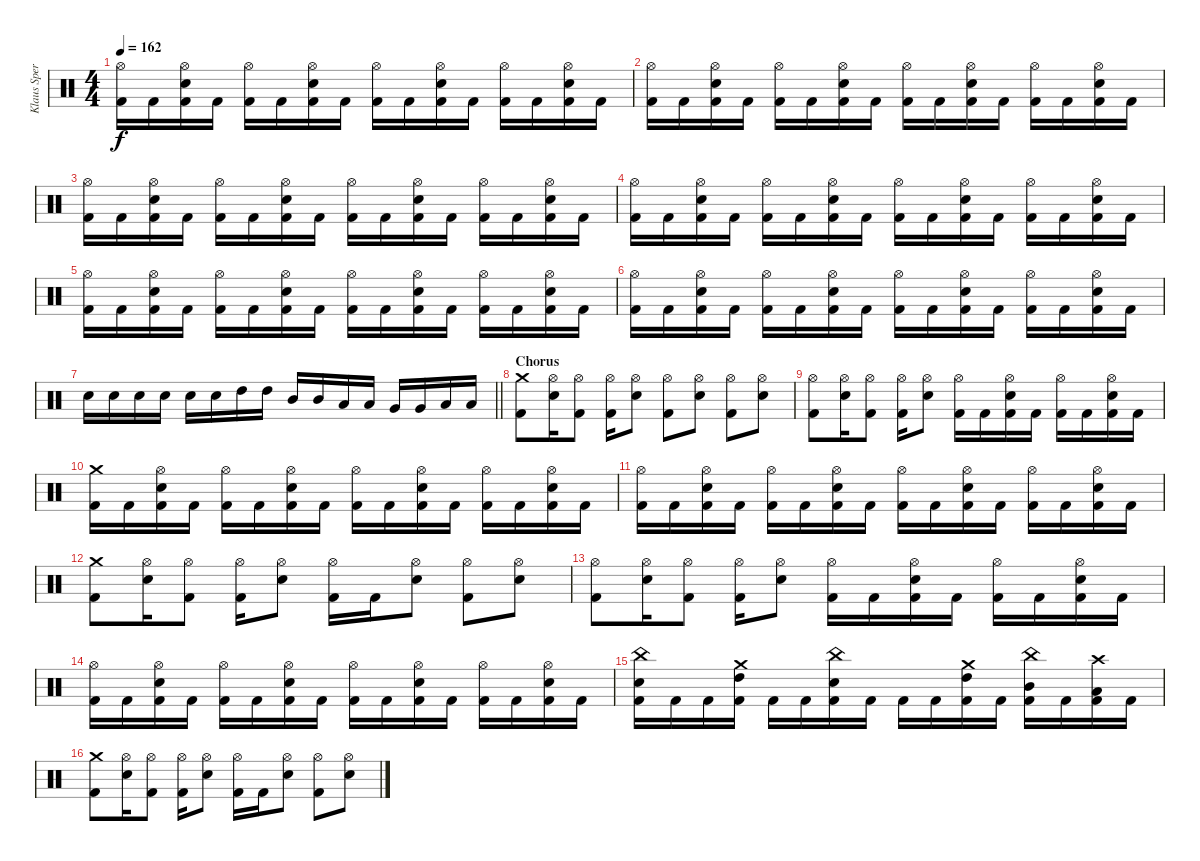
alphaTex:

\track ("Klaus Sperling" "Klaus Sper") {instrument percussion}
\staff {score}
\articulation defaults
\ts (4 4)
\tempo 162
\clef neutral
\ks c
("Hi-Hat (open)" "Kick (hit) 2").16{dy f} "Kick (hit) 2".16 ("Hi-Hat (open)" "Electric Snare (hit)" "Kick (hit) 2").16 "Kick (hit) 2".16 ("Hi-Hat (open)" "Kick (hit) 2").16 "Kick (hit) 2".16 ("Hi-Hat (open)" "Electric Snare (hit)" "Kick (hit) 2").16 "Kick (hit) 2".16 ("Hi-Hat (open)" "Kick (hit) 2").16 "Kick (hit) 2".16 ("Hi-Hat (open)" "Electric Snare (hit)" "Kick (hit) 2").16 "Kick (hit) 2".16 ("Hi-Hat (open)" "Kick (hit) 2").16 "Kick (hit) 2".16 ("Hi-Hat (open)" "Electric Snare (hit)" "Kick (hit) 2").16 "Kick (hit) 2".16 |
("Hi-Hat (open)" "Kick (hit) 2").16 "Kick (hit) 2".16 ("Hi-Hat (open)" "Electric Snare (hit)" "Kick (hit) 2").16 "Kick (hit) 2".16 ("Hi-Hat (open)" "Kick (hit) 2").16 "Kick (hit) 2".16 ("Hi-Hat (open)" "Electric Snare (hit)" "Kick (hit) 2").16 "Kick (hit) 2".16 ("Hi-Hat (open)" "Kick (hit) 2").16 "Kick (hit) 2".16 ("Hi-Hat (open)" "Electric Snare (hit)" "Kick (hit) 2").16 "Kick (hit) 2".16 ("Hi-Hat (open)" "Kick (hit) 2").16 "Kick (hit) 2".16 ("Hi-Hat (open)" "Electric Snare (hit)" "Kick (hit) 2").16 "Kick (hit) 2".16 |
("Hi-Hat (open)" "Kick (hit) 2").16 "Kick (hit) 2".16 ("Hi-Hat (open)" "Electric Snare (hit)" "Kick (hit) 2").16 "Kick (hit) 2".16 ("Hi-Hat (open)" "Kick (hit) 2").16 "Kick (hit) 2".16 ("Hi-Hat (open)" "Electric Snare (hit)" "Kick (hit) 2").16 "Kick (hit) 2".16 ("Hi-Hat (open)" "Kick (hit) 2").16 "Kick (hit) 2".16 ("Hi-Hat (open)" "Electric Snare (hit)" "Kick (hit) 2").16 "Kick (hit) 2".16 ("Hi-Hat (open)" "Kick (hit) 2").16 "Kick (hit) 2".16 ("Hi-Hat (open)" "Electric Snare (hit)" "Kick (hit) 2").16 "Kick (hit) 2".16 |
("Hi-Hat (open)" "Kick (hit) 2").16 "Kick (hit) 2".16 ("Hi-Hat (open)" "Electric Snare (hit)" "Kick (hit) 2").16 "Kick (hit) 2".16 ("Hi-Hat (open)" "Kick (hit) 2").16 "Kick (hit) 2".16 ("Hi-Hat (open)" "Electric Snare (hit)" "Kick (hit) 2").16 "Kick (hit) 2".16 ("Hi-Hat (open)" "Kick (hit) 2").16 "Kick (hit) 2".16 ("Hi-Hat (open)" "Electric Snare (hit)" "Kick (hit) 2").16 "Kick (hit) 2".16 ("Hi-Hat (open)" "Kick (hit) 2").16 "Kick (hit) 2".16 ("Hi-Hat (open)" "Electric Snare (hit)" "Kick (hit) 2").16 "Kick (hit) 2".16 |
("Hi-Hat (open)" "Kick (hit) 2").16 "Kick (hit) 2".16 ("Hi-Hat (open)" "Electric Snare (hit)" "Kick (hit) 2").16 "Kick (hit) 2".16 ("Hi-Hat (open)" "Kick (hit) 2").16 "Kick (hit) 2".16 ("Hi-Hat (open)" "Electric Snare (hit)" "Kick (hit) 2").16 "Kick (hit) 2".16 ("Hi-Hat (open)" "Kick (hit) 2").16 "Kick (hit) 2".16 ("Hi-Hat (open)" "Electric Snare (hit)" "Kick (hit) 2").16 "Kick (hit) 2".16 ("Hi-Hat (open)" "Kick (hit) 2").16 "Kick (hit) 2".16 ("Hi-Hat (open)" "Electric Snare (hit)" "Kick (hit) 2").16 "Kick (hit) 2".16 |
("Hi-Hat (open)" "Kick (hit) 2").16 "Kick (hit) 2".16 ("Hi-Hat (open)" "Electric Snare (hit)" "Kick (hit) 2").16 "Kick (hit) 2".16 ("Hi-Hat (open)" "Kick (hit) 2").16 "Kick (hit) 2".16 ("Hi-Hat (open)" "Electric Snare (hit)" "Kick (hit) 2").16 "Kick (hit) 2".16 ("Hi-Hat (open)" "Kick (hit) 2").16 "Kick (hit) 2".16 ("Hi-Hat (open)" "Electric Snare (hit)" "Kick (hit) 2").16 "Kick (hit) 2".16 ("Hi-Hat (open)" "Kick (hit) 2").16 "Kick (hit) 2".16 ("Hi-Hat (open)" "Electric Snare (hit)" "Kick (hit) 2").16 "Kick (hit) 2".16 |
\barLineRight lightlight "Electric Snare (hit)".16 "Electric Snare (hit)".16 "Electric Snare (hit)".16 "Electric Snare (hit)".16 "Electric Snare (hit)".16 "Electric Snare (hit)".16 "High Tom (hit)".16 "High Tom (hit)".16 "Mid Tom (hit)".16 "Mid Tom (hit)".16 "Low Tom (hit)".16 "Low Tom (hit)".16 "Very Low Tom (hit)".16 "Very Low Tom (hit)".16 "Low Floor Tom (hit)".16 "Low Floor Tom (hit)".16
|
\section ("" "Chorus")
("Crash medium (hit)" "Kick (hit) 2").8 ("Hi-Hat (open)" "Electric Snare (hit)").16 ("Hi-Hat (open)" "Kick (hit) 2").8 ("Hi-Hat (open)" "Kick (hit) 2").16 ("Hi-Hat (open)" "Electric Snare (hit)").8 ("Hi-Hat (open)" "Kick (hit) 2").8 ("Hi-Hat (open)" "Electric Snare (hit)").8 ("Hi-Hat (open)" "Kick (hit) 2").8 ("Hi-Hat (open)" "Electric Snare (hit)").8 |
("Hi-Hat (open)" "Kick (hit) 2").8 ("Hi-Hat (open)" "Electric Snare (hit)").16 ("Hi-Hat (open)" "Kick (hit) 2").8 ("Hi-Hat (open)" "Kick (hit) 2").16 ("Hi-Hat (open)" "Electric Snare (hit)").8 ("Hi-Hat (open)" "Kick (hit) 2").16 "Kick (hit) 2".16 ("Hi-Hat (open)" "Electric Snare (hit)" "Kick (hit) 2").16 "Kick (hit) 2".16 ("Hi-Hat (open)" "Kick (hit) 2").16 "Kick (hit) 2".16 ("Hi-Hat (open)" "Electric Snare (hit)" "Kick (hit) 2").16 "Kick (hit) 2".16 |
("Crash medium (hit)" "Kick (hit) 2").16 "Kick (hit) 2".16 ("Hi-Hat (open)" "Electric Snare (hit)" "Kick (hit) 2").16 "Kick (hit) 2".16 ("Hi-Hat (open)" "Kick (hit) 2").16 "Kick (hit) 2".16 ("Hi-Hat (open)" "Electric Snare (hit)" "Kick (hit) 2").16 "Kick (hit) 2".16 ("Hi-Hat (open)" "Kick (hit) 2").16 "Kick (hit) 2".16 ("Hi-Hat (open)" "Electric Snare (hit)" "Kick (hit) 2").16 "Kick (hit) 2".16 ("Hi-Hat (open)" "Kick (hit) 2").16 "Kick (hit) 2".16 ("Hi-Hat (open)" "Electric Snare (hit)" "Kick (hit) 2").16 "Kick (hit) 2".16 |
("Hi-Hat (open)" "Kick (hit) 2").16 "Kick (hit) 2".16 ("Hi-Hat (open)" "Electric Snare (hit)" "Kick (hit) 2").16 "Kick (hit) 2".16 ("Hi-Hat (open)" "Kick (hit) 2").16 "Kick (hit) 2".16 ("Hi-Hat (open)" "Electric Snare (hit)" "Kick (hit) 2").16 "Kick (hit) 2".16 ("Hi-Hat (open)" "Kick (hit) 2").16 "Kick (hit) 2".16 ("Hi-Hat (open)" "Electric Snare (hit)" "Kick (hit) 2").16 "Kick (hit) 2".16 ("Hi-Hat (open)" "Kick (hit) 2").16 "Kick (hit) 2".16 ("Hi-Hat (open)" "Electric Snare (hit)" "Kick (hit) 2").16 "Kick (hit) 2".16 |
("Crash medium (hit)" "Kick (hit) 2").8 ("Hi-Hat (open)" "Electric Snare (hit)").16 ("Hi-Hat (open)" "Kick (hit) 2").8 ("Hi-Hat (open)" "Kick (hit) 2").16 ("Hi-Hat (open)" "Electric Snare (hit)").8 ("Hi-Hat (open)" "Kick (hit) 2").16 "Kick (hit) 2".16 ("Hi-Hat (open)" "Electric Snare (hit)").8 ("Hi-Hat (open)" "Kick (hit) 2").8 ("Hi-Hat (open)" "Electric Snare (hit)").8 |
("Hi-Hat (open)" "Kick (hit) 2").8 ("Hi-Hat (open)" "Electric Snare (hit)").16 ("Hi-Hat (open)" "Kick (hit) 2").8 ("Hi-Hat (open)" "Kick (hit) 2").16 ("Hi-Hat (open)" "Electric Snare (hit)").8 ("Hi-Hat (open)" "Kick (hit) 2").16 "Kick (hit) 2".16 ("Hi-Hat (open)" "Electric Snare (hit)" "Kick (hit) 2").16 "Kick (hit) 2".16 ("Hi-Hat (open)" "Kick (hit) 2").16 "Kick (hit) 2".16 ("Hi-Hat (open)" "Electric Snare (hit)" "Kick (hit) 2").16 "Kick (hit) 2".16 |
("Hi-Hat (open)" "Kick (hit) 2").16 "Kick (hit) 2".16 ("Hi-Hat (open)" "Electric Snare (hit)" "Kick (hit) 2").16 "Kick (hit) 2".16 ("Hi-Hat (open)" "Kick (hit) 2").16 "Kick (hit) 2".16 ("Hi-Hat (open)" "Electric Snare (hit)" "Kick (hit) 2").16 "Kick (hit) 2".16 ("Hi-Hat (open)" "Kick (hit) 2").16 "Kick (hit) 2".16 ("Hi-Hat (open)" "Electric Snare (hit)" "Kick (hit) 2").16 "Kick (hit) 2".16 ("Hi-Hat (open)" "Kick (hit) 2").16 "Kick (hit) 2".16 ("Hi-Hat (open)" "Electric Snare (hit)" "Kick (hit) 2").16 "Kick (hit) 2".16 |
("China (hit)" "Electric Snare (hit)" "Kick (hit) 2").16 "Kick (hit) 2".16 "Kick (hit) 2".16 ("Crash medium (hit)" "High Tom (hit)" "Kick (hit) 2").16 "Kick (hit) 2".16 "Kick (hit) 2".16 ("China (hit)" "Electric Snare (hit)" "Kick (hit) 2").16 "Kick (hit) 2".16 "Kick (hit) 2".16 "Kick (hit) 2".16 ("Crash medium (hit)" "High Tom (hit)" "Kick (hit) 2").16 "Kick (hit) 2".16 ("China (hit)" "Mid Tom (hit)" "Kick (hit) 2").16 "Kick (hit) 2".16 ("Crash high (hit)" "Low Tom (hit)" "Kick (hit) 2").16 "Kick (hit) 2".16 |
("Crash medium (hit)" "Kick (hit) 2").8 ("Hi-Hat (open)" "Electric Snare (hit)").16 ("Hi-Hat (open)" "Kick (hit) 2").8 ("Hi-Hat (open)" "Kick (hit) 2").16 ("Hi-Hat (open)" "Electric Snare (hit)").8 ("Hi-Hat (open)" "Kick (hit) 2").16 "Kick (hit) 2".16 ("Hi-Hat (open)" "Electric Snare (hit)").8 ("Hi-Hat (open)" "Kick (hit) 2").8 ("Hi-Hat (open)" "Electric Snare (hit)").8
